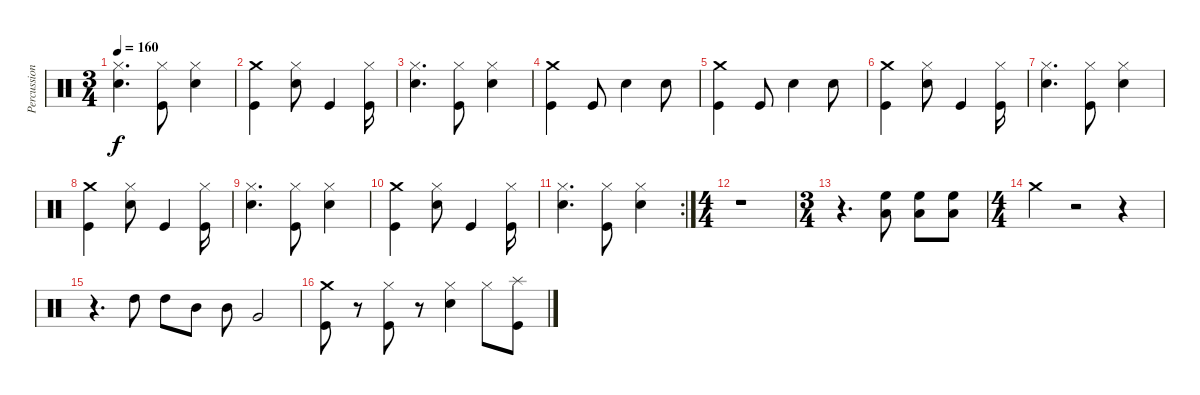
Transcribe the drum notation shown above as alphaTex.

\track ("Percussion" "Percussion") {instrument percussion}
\staff {score}
\articulation defaults
\ts (3 4)
\tempo 160
\clef neutral
\ks c
("Hi-Hat (closed)" "Snare (hit) 2").4{d dy f} ("Hi-Hat (closed)" "Kick (hit)").8 ("Hi-Hat (closed)" "Snare (hit) 2").4 |
("Crash medium (hit)" "Kick (hit)").4 ("Hi-Hat (closed)" "Snare (hit) 2").8 "Kick (hit)".4 ("Hi-Hat (closed)" "Kick (hit)").16 |
("Hi-Hat (closed)" "Snare (hit) 2").4{d} ("Hi-Hat (closed)" "Kick (hit)").8 ("Hi-Hat (closed)" "Snare (hit) 2").4 |
("Crash medium (hit)" "Kick (hit)").4 "Kick (hit)".8 "Snare (hit) 2".4 "Snare (hit) 2".8 |
("Crash medium (hit)" "Kick (hit)").4 "Kick (hit)".8 "Snare (hit) 2".4 "Snare (hit) 2".8 |
("Crash medium (hit)" "Kick (hit)").4 ("Hi-Hat (closed)" "Snare (hit) 2").8 "Kick (hit)".4 ("Hi-Hat (closed)" "Kick (hit)").16 |
("Hi-Hat (closed)" "Snare (hit) 2").4{d} ("Hi-Hat (closed)" "Kick (hit)").8 ("Hi-Hat (closed)" "Snare (hit) 2").4 |
("Crash medium (hit)" "Kick (hit)").4 ("Hi-Hat (closed)" "Snare (hit) 2").8 "Kick (hit)".4 ("Hi-Hat (closed)" "Kick (hit)").16 |
("Hi-Hat (closed)" "Snare (hit) 2").4{d} ("Hi-Hat (closed)" "Kick (hit)").8 ("Hi-Hat (closed)" "Snare (hit) 2").4 |
("Crash medium (hit)" "Kick (hit)").4 ("Hi-Hat (closed)" "Snare (hit) 2").8 "Kick (hit)".4 ("Hi-Hat (closed)" "Kick (hit)").16 |
\rc 2
("Hi-Hat (closed)" "Snare (hit) 2").4{d} ("Hi-Hat (closed)" "Kick (hit)").8 ("Hi-Hat (closed)" "Snare (hit) 2").4 |
\ts (4 4)
r.1 |
\ts (3 4)
r.4{d} ("High Floor Tom (hit)" "Low Floor Tom (hit)").8 ("High Floor Tom (hit)" "Low Floor Tom (hit)").8 ("High Floor Tom (hit)" "Low Floor Tom (hit)").8 |
\ts (4 4)
"Crash medium (hit)".4 r.2 r.4 |
r.4{d} "High Tom (hit)".8 "High Tom (hit)".8 "Mid Tom (hit)".8 "Mid Tom (hit)".8 "Very Low Tom (hit)".2 |
("Crash medium (hit)" "Kick (hit)").8 r.8 ("Hi-Hat (closed)" "Kick (hit)").8 r.8 ("Hi-Hat (closed)" "Snare (hit) 2").4 "Hi-Hat (closed)".8 ("Splash (hit)" "Kick (hit)").8
